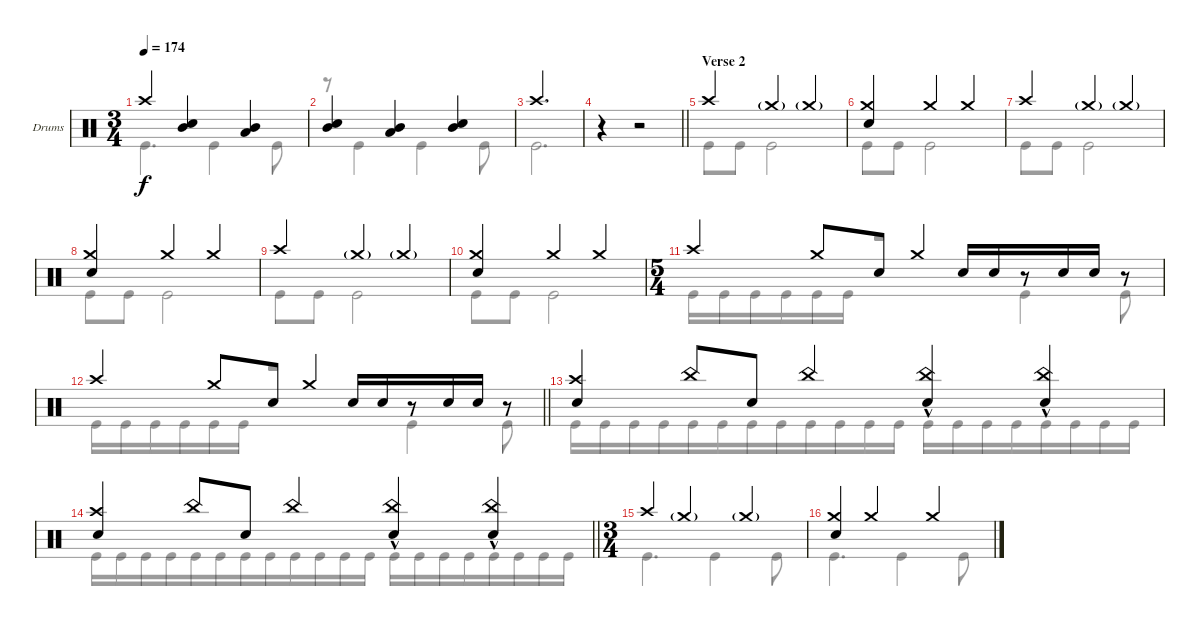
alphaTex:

\bracketExtendMode groupsimilarinstruments
\firstSystemTrackNameOrientation horizontal
\otherSystemsTrackNameOrientation horizontal
\track ("Drumkit" "Drums") {instrument percussion}
\staff {score}
\articulation defaults
\voice
\ts (3 4)
\beaming (8 2 2 2)
\section ("" "")
\tempo 174
\clef neutral
\ks c "Crash high (hit)".4{dy f}
("Mid Tom (hit)" "Snare (hit) 2").4 ("Mid Tom (hit)" "Low Tom (hit)").4 |
("Mid Tom (hit)" "Snare (hit) 2").4 ("Mid Tom (hit)" "Low Tom (hit)").4 ("Mid Tom (hit)" "Snare (hit) 2").4 |
"Crash high (hit)".2{d} |
\barLineRight lightlight
r.4 r.2 |
\section ("" "Verse 2")
"Crash high (hit)".4 "Crash medium (hit)"{g}.4 "Crash medium (hit)"{g}.4 |
("Crash medium (hit)" "Snare (hit) 2").4 "Crash medium (hit)".4 "Crash medium (hit)".4 |
"Crash high (hit)".4 "Crash medium (hit)"{g}.4 "Crash medium (hit)"{g}.4 |
("Crash medium (hit)" "Snare (hit) 2").4 "Crash medium (hit)".4 "Crash medium (hit)".4 |
"Crash high (hit)".4 "Crash medium (hit)"{g}.4 "Crash medium (hit)"{g}.4 |
("Crash medium (hit)" "Snare (hit) 2").4 "Crash medium (hit)".4 "Crash medium (hit)".4 |
\ts (5 4)
\beaming (8 6 4)
"Crash high (hit)".4 "Crash medium (hit)".8 "Snare (hit) 2".8 "Crash medium (hit)".4 "Snare (hit) 2".16 "Snare (hit) 2".16 r.8 "Snare (hit) 2".16 "Snare (hit) 2".16 r.8 |
\barLineRight lightlight "Crash high (hit)".4 "Crash medium (hit)".8 "Snare (hit) 2".8 "Crash medium (hit)".4 "Snare (hit) 2".16 "Snare (hit) 2".16
r.8 "Snare (hit) 2".16 "Snare (hit) 2".16 r.8 |
("Crash high (hit)" "Snare (hit) 2").4 "China (hit)".8 "Snare (hit) 2".8 "China (hit)".4 ("China (hit)"{hac} "Snare (hit) 2").4 ("China (hit)"{hac} "Snare (hit) 2").4 |
\barLineRight lightlight
("Crash high (hit)" "Snare (hit) 2").4 "China (hit)".8 "Snare (hit) 2".8 "China (hit)".4 ("China (hit)"{hac} "Snare (hit) 2").4 ("China (hit)"{hac} "Snare (hit) 2").4 |
\ts (3 4)
\beaming (8 2 2 2)
\section ("" "")
"Crash high (hit)".4 "Crash medium (hit)"{g}.4 "Crash medium (hit)"{g}.4 |
("Crash medium (hit)" "Snare (hit) 2").4 "Crash medium (hit)".4 "Crash medium (hit)".4
\voice
\clef neutral
\ottava regular
\simile none
\ks c "Kick (hit)".4{d dy f} "Kick (hit)".4 "Kick (hit)".8
|
r.8 "Kick (hit)".4 "Kick (hit)".4 "Kick (hit)".8 |
"Kick (hit)".2{d} |
\barLineRight lightlight
|
"Kick (hit)".8 "Kick (hit)".8 "Kick (hit)".2 |
"Kick (hit)".8 "Kick (hit)".8 "Kick (hit)".2 |
"Kick (hit)".8 "Kick (hit)".8 "Kick (hit)".2 |
"Kick (hit)".8 "Kick (hit)".8 "Kick (hit)".2 |
"Kick (hit)".8 "Kick (hit)".8 "Kick (hit)".2 |
"Kick (hit)".8 "Kick (hit)".8 "Kick (hit)".2 |
"Kick (hit)".16 "Kick (hit)".16 "Kick (hit)".16 "Kick (hit)".16 "Kick (hit)".16 "Kick (hit)".16 r.2 "Kick (hit)".4 "Kick (hit)".8 |
\barLineRight lightlight "Kick (hit)".16 "Kick (hit)".16 "Kick (hit)".16 "Kick (hit)".16 "Kick (hit)".16 "Kick (hit)".16
r.2 "Kick (hit)".4 "Kick (hit)".8 |
"Kick (hit)".16 "Kick (hit)".16 "Kick (hit)".16 "Kick (hit)".16 "Kick (hit)".16 "Kick (hit)".16 "Kick (hit)".16 "Kick (hit)".16 "Kick (hit)".16 "Kick (hit)".16 "Kick (hit)".16 "Kick (hit)".16 "Kick (hit)".16 "Kick (hit)".16 "Kick (hit)".16 "Kick (hit)".16 "Kick (hit)".16 "Kick (hit)".16 "Kick (hit)".16 "Kick (hit)".16 |
\barLineRight lightlight "Kick (hit)".16 "Kick (hit)".16 "Kick (hit)".16 "Kick (hit)".16 "Kick (hit)".16 "Kick (hit)".16 "Kick (hit)".16 "Kick (hit)".16 "Kick (hit)".16 "Kick (hit)".16 "Kick (hit)".16 "Kick (hit)".16 "Kick (hit)".16 "Kick (hit)".16 "Kick (hit)".16 "Kick (hit)".16 "Kick (hit)".16 "Kick (hit)".16 "Kick (hit)".16 "Kick (hit)".16
|
"Kick (hit)".4{d} "Kick (hit)".4 "Kick (hit)".8 |
"Kick (hit)".4{d} "Kick (hit)".4 "Kick (hit)".8
